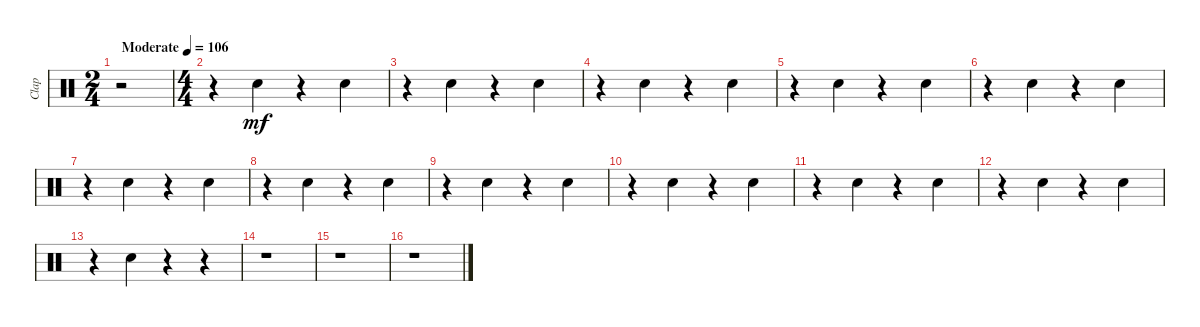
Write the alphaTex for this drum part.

\track ("Clap" "Clap") {instrument percussion}
\staff {score}
\articulation defaults
\ts (2 4)
\tempo (106 "Moderate")
\clef neutral
\ks c
r.2{dy mf} |
\ts (4 4)
r.4 "Hand Clap (hit)".4 r.4 "Hand Clap (hit)".4 |
r.4 "Hand Clap (hit)".4 r.4 "Hand Clap (hit)".4 |
r.4 "Hand Clap (hit)".4 r.4 "Hand Clap (hit)".4 |
r.4 "Hand Clap (hit)".4 r.4 "Hand Clap (hit)".4 |
r.4 "Hand Clap (hit)".4 r.4 "Hand Clap (hit)".4 |
r.4 "Hand Clap (hit)".4 r.4 "Hand Clap (hit)".4 |
r.4 "Hand Clap (hit)".4 r.4 "Hand Clap (hit)".4 |
r.4 "Hand Clap (hit)".4 r.4 "Hand Clap (hit)".4 |
r.4 "Hand Clap (hit)".4 r.4 "Hand Clap (hit)".4 |
r.4 "Hand Clap (hit)".4 r.4 "Hand Clap (hit)".4 |
r.4 "Hand Clap (hit)".4 r.4 "Hand Clap (hit)".4 |
r.4 "Hand Clap (hit)".4 r.4 r.4 |
r.1 |
r.1 |
r.1
